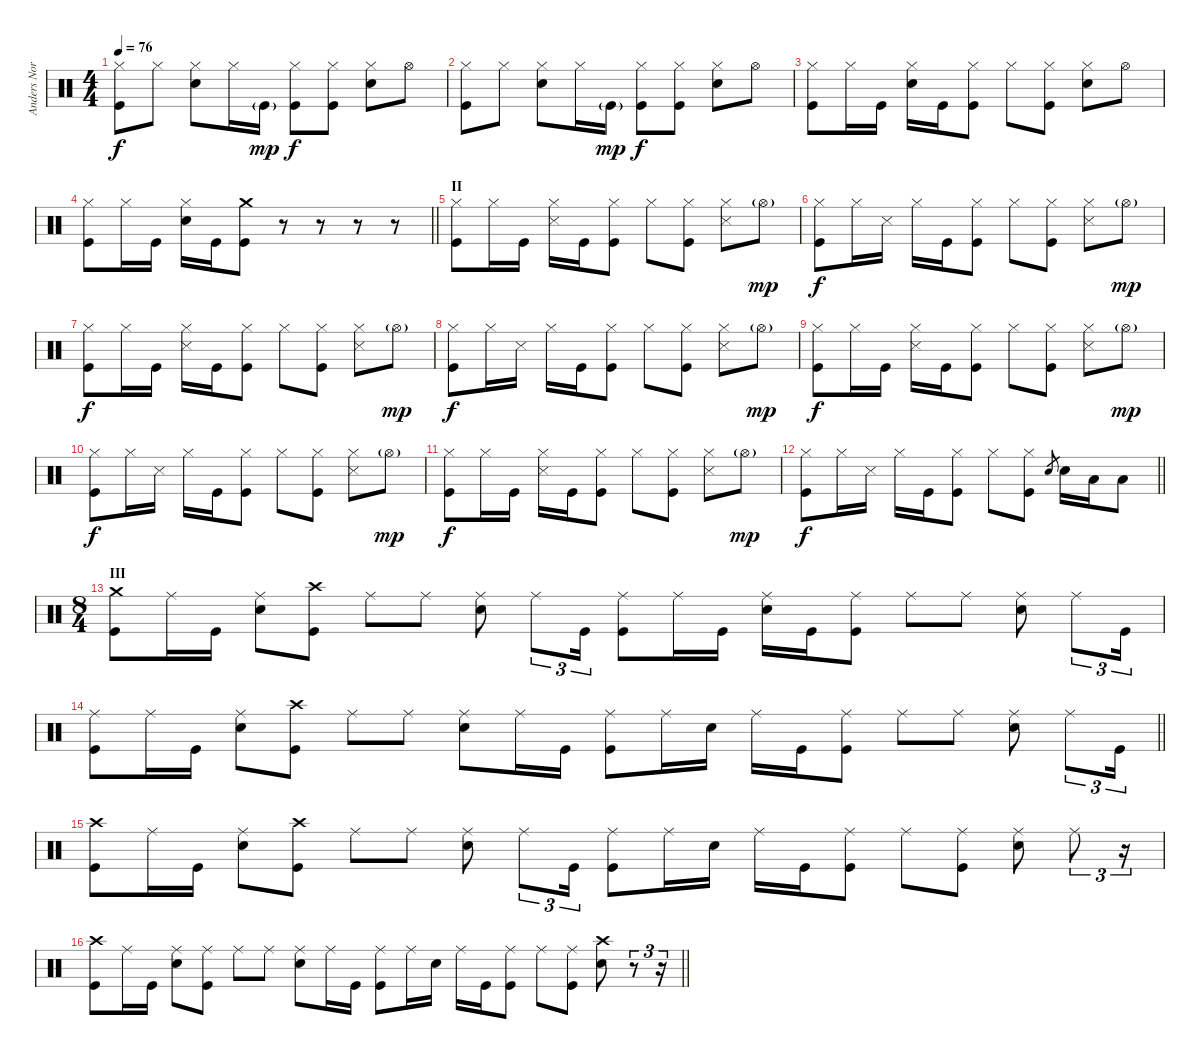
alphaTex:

\track ("Anders Nordin - Drums" "Anders Nor") {instrument percussion}
\staff {score}
\articulation defaults
\ts (4 4)
\tempo 76
\clef neutral
\ks c
("Hi-Hat (closed)" "Kick (hit)").8{dy f} "Hi-Hat (closed)".8 ("Hi-Hat (closed)" "Snare (hit) 2").8 "Hi-Hat (closed)".16 "Kick (hit)"{g}.16{dy mp} ("Hi-Hat (closed)" "Kick (hit)").8{dy f} ("Hi-Hat (closed)" "Kick (hit)").8 ("Hi-Hat (closed)" "Snare (hit) 2").8 "Hi-Hat (open)".8 |
("Hi-Hat (closed)" "Kick (hit)").8 "Hi-Hat (closed)".8 ("Hi-Hat (closed)" "Snare (hit) 2").8 "Hi-Hat (closed)".16 "Kick (hit)"{g}.16{dy mp} ("Hi-Hat (closed)" "Kick (hit)").8{dy f} ("Hi-Hat (closed)" "Kick (hit)").8 ("Hi-Hat (closed)" "Snare (hit) 2").8 "Hi-Hat (open)".8 |
("Hi-Hat (closed)" "Kick (hit)").8 "Hi-Hat (closed)".16 "Kick (hit)".16 ("Hi-Hat (closed)" "Snare (hit) 2").16 "Kick (hit)".16 ("Kick (hit)" "Hi-Hat (closed)").8 "Hi-Hat (closed)".8 ("Hi-Hat (closed)" "Kick (hit)").8 ("Hi-Hat (closed)" "Snare (hit) 2").8 "Hi-Hat (open)".8 |
\barLineRight lightlight
("Hi-Hat (closed)" "Kick (hit)").8 "Hi-Hat (closed)".16 "Kick (hit)".16 ("Hi-Hat (closed)" "Snare (hit) 2").16 "Kick (hit)".16 ("Kick (hit)" "Crash medium (hit)").8 r.8 r.8 r.8 r.8 |
\section ("" "II")
("Hi-Hat (closed)" "Kick (hit)").8 "Hi-Hat (closed)".16 "Kick (hit)".16 ("Hi-Hat (closed)" "Snare (side stick) 3").16 "Kick (hit)".16 ("Hi-Hat (closed)" "Kick (hit)").8 "Hi-Hat (closed)".8 ("Hi-Hat (closed)" "Kick (hit)").8 ("Hi-Hat (closed)" "Snare (side stick) 3").8 "Hi-Hat (open)"{g}.8{dy mp} |
("Hi-Hat (closed)" "Kick (hit)").8{dy f} "Hi-Hat (closed)".16 "Snare (side stick) 3".16 "Hi-Hat (closed)".16 "Kick (hit)".16 ("Hi-Hat (closed)" "Kick (hit)").8 "Hi-Hat (closed)".8 ("Hi-Hat (closed)" "Kick (hit)").8 ("Hi-Hat (closed)" "Snare (side stick) 3").8 "Hi-Hat (open)"{g}.8{dy mp} |
("Hi-Hat (closed)" "Kick (hit)").8{dy f} "Hi-Hat (closed)".16 "Kick (hit)".16 ("Hi-Hat (closed)" "Snare (side stick) 3").16 "Kick (hit)".16 ("Hi-Hat (closed)" "Kick (hit)").8 "Hi-Hat (closed)".8 ("Hi-Hat (closed)" "Kick (hit)").8 ("Hi-Hat (closed)" "Snare (side stick) 3").8 "Hi-Hat (open)"{g}.8{dy mp} |
("Hi-Hat (closed)" "Kick (hit)").8{dy f} "Hi-Hat (closed)".16 "Snare (side stick) 3".16 "Hi-Hat (closed)".16 "Kick (hit)".16 ("Hi-Hat (closed)" "Kick (hit)").8 "Hi-Hat (closed)".8 ("Hi-Hat (closed)" "Kick (hit)").8 ("Hi-Hat (closed)" "Snare (side stick) 3").8 "Hi-Hat (open)"{g}.8{dy mp} |
("Hi-Hat (closed)" "Kick (hit)").8{dy f} "Hi-Hat (closed)".16 "Kick (hit)".16 ("Hi-Hat (closed)" "Snare (side stick) 3").16 "Kick (hit)".16 ("Hi-Hat (closed)" "Kick (hit)").8 "Hi-Hat (closed)".8 ("Hi-Hat (closed)" "Kick (hit)").8 ("Hi-Hat (closed)" "Snare (side stick) 3").8 "Hi-Hat (open)"{g}.8{dy mp} |
("Hi-Hat (closed)" "Kick (hit)").8{dy f} "Hi-Hat (closed)".16 "Snare (side stick) 3".16 "Hi-Hat (closed)".16 "Kick (hit)".16 ("Hi-Hat (closed)" "Kick (hit)").8 "Hi-Hat (closed)".8 ("Hi-Hat (closed)" "Kick (hit)").8 ("Hi-Hat (closed)" "Snare (side stick) 3").8 "Hi-Hat (open)"{g}.8{dy mp} |
("Hi-Hat (closed)" "Kick (hit)").8{dy f} "Hi-Hat (closed)".16 "Kick (hit)".16 ("Hi-Hat (closed)" "Snare (side stick) 3").16 "Kick (hit)".16 ("Hi-Hat (closed)" "Kick (hit)").8 "Hi-Hat (closed)".8 ("Hi-Hat (closed)" "Kick (hit)").8 ("Hi-Hat (closed)" "Snare (side stick) 3").8 "Hi-Hat (open)"{g}.8{dy mp} |
\barLineRight lightlight
("Hi-Hat (closed)" "Kick (hit)").8{dy f} "Hi-Hat (closed)".16 "Snare (side stick) 3".16 "Hi-Hat (closed)".16 "Kick (hit)".16 ("Hi-Hat (closed)" "Kick (hit)").8 "Hi-Hat (closed)".8 ("Hi-Hat (closed)" "Kick (hit)").8 "Snare (hit) 2".8{gr} "Snare (hit) 2".16 "Low Tom (hit)".16 "Low Floor Tom (hit)".8 |
\ts (8 4)
\section ("" "III")
("Kick (hit)" "Crash medium (hit)").8 "Ride (middle)".16 "Kick (hit)".16 ("Ride (middle)" "Snare (hit) 2").8 ("Kick (hit)" "Crash high (hit)").8 "Ride (middle)".8 "Ride (middle)".8 ("Ride (middle)" "Snare (hit) 2").8 "Ride (middle)".8{tu (3 2)} "Kick (hit)".16{tu (3 2)} ("Kick (hit)" "Ride (middle)").8 "Ride (middle)".16 "Kick (hit)".16 ("Ride (middle)" "Snare (hit) 2").16 "Kick (hit)".16 ("Kick (hit)" "Ride (middle)").8 "Ride (middle)".8 "Ride (middle)".8 ("Ride (middle)" "Snare (hit) 2").8 "Ride (middle)".8{tu (3 2)} "Kick (hit)".16{tu (3 2)} |
\barLineRight lightlight
("Kick (hit)" "Ride (middle)").8 "Ride (middle)".16 "Kick (hit)".16 ("Ride (middle)" "Snare (hit) 2").8 ("Kick (hit)" "Crash high (hit)").8 "Ride (middle)".8 "Ride (middle)".8 ("Ride (middle)" "Snare (hit) 2").8 "Ride (middle)".16 "Kick (hit)".16 ("Kick (hit)" "Ride (middle)").8 "Ride (middle)".16 "Snare (hit) 2".16 "Ride (middle)".16 "Kick (hit)".16 ("Kick (hit)" "Ride (middle)").8 "Ride (middle)".8 "Ride (middle)".8 ("Ride (middle)" "Snare (hit) 2").8 "Ride (middle)".8{tu (3 2)} "Kick (hit)".16{tu (3 2)} |
("Kick (hit)" "Crash high (hit)").8 "Ride (middle)".16 "Kick (hit)".16 ("Ride (middle)" "Snare (hit) 2").8 ("Kick (hit)" "Crash high (hit)").8 "Ride (middle)".8 "Ride (middle)".8 ("Ride (middle)" "Snare (hit) 2").8 "Ride (middle)".8{tu (3 2)} "Kick (hit)".16{tu (3 2)} ("Kick (hit)" "Ride (middle)").8 "Ride (middle)".16 "Snare (hit) 2".16 "Ride (middle)".16 "Kick (hit)".16 ("Kick (hit)" "Ride (middle)").8 "Ride (middle)".8 ("Ride (middle)" "Kick (hit)").8 ("Ride (middle)" "Snare (hit) 2").8 "Ride (middle)".8{tu (3 2)} r.16{tu (3 2)} |
\barLineRight lightlight
("Kick (hit)" "Crash high (hit)").8 "Ride (middle)".16 "Kick (hit)".16 ("Ride (middle)" "Snare (hit) 2").8 ("Kick (hit)" "Ride (middle)").8 "Ride (middle)".8 "Ride (middle)".8 ("Ride (middle)" "Snare (hit) 2").8 "Ride (middle)".16 "Kick (hit)".16 ("Kick (hit)" "Ride (middle)").8 "Ride (middle)".16 "Snare (hit) 2".16 "Ride (middle)".16 "Kick (hit)".16 ("Kick (hit)" "Ride (middle)").8 "Ride (middle)".8 ("Ride (middle)" "Kick (hit)").8 ("Crash high (hit)" "Snare (hit) 2").8 r.8{tu (3 2)} r.16{tu (3 2)}
